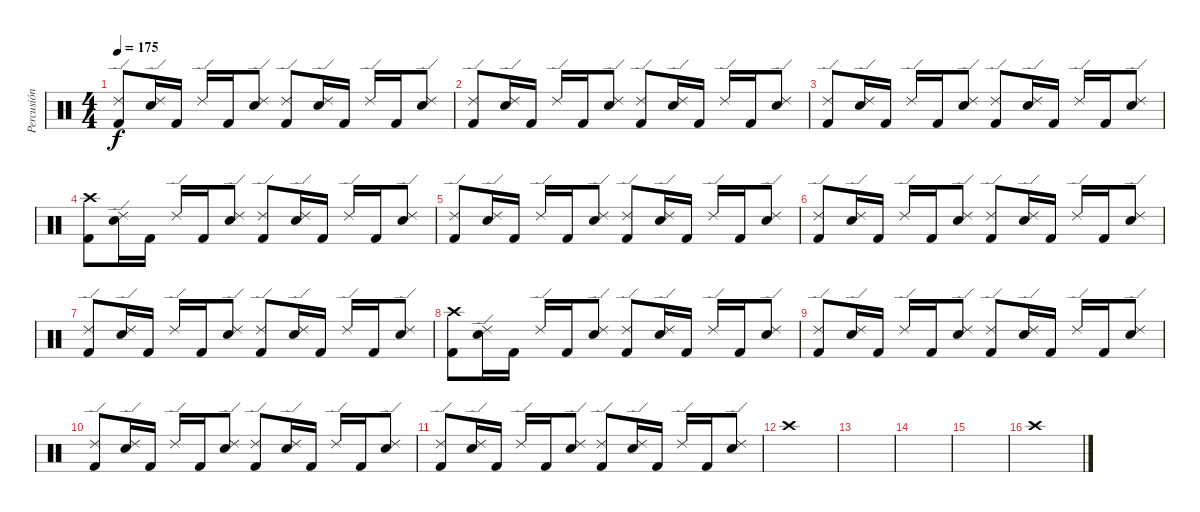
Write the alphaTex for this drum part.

\track ("Percusión" "Percusión") {instrument percussion}
\staff {score}
\articulation defaults
\ts (4 4)
\tempo 175
\clef neutral
\ks c
("Ride (edge) 2" "Kick (hit) 2").8{dy f} ("Ride (edge) 2" "Electric Snare (hit)").16 "Kick (hit) 2".16 "Ride (edge) 2".16 "Kick (hit) 2".16 ("Ride (edge) 2" "Electric Snare (hit)").8 ("Ride (edge) 2" "Kick (hit) 2").8 ("Ride (edge) 2" "Electric Snare (hit)").16 "Kick (hit) 2".16 "Ride (edge) 2".16 "Kick (hit) 2".16 ("Ride (edge) 2" "Electric Snare (hit)").8 |
("Ride (edge) 2" "Kick (hit) 2").8 ("Ride (edge) 2" "Electric Snare (hit)").16 "Kick (hit) 2".16 "Ride (edge) 2".16 "Kick (hit) 2".16 ("Ride (edge) 2" "Electric Snare (hit)").8 ("Ride (edge) 2" "Kick (hit) 2").8 ("Ride (edge) 2" "Electric Snare (hit)").16 "Kick (hit) 2".16 "Ride (edge) 2".16 "Kick (hit) 2".16 ("Ride (edge) 2" "Electric Snare (hit)").8 |
("Ride (edge) 2" "Kick (hit) 2").8 ("Ride (edge) 2" "Electric Snare (hit)").16 "Kick (hit) 2".16 "Ride (edge) 2".16 "Kick (hit) 2".16 ("Ride (edge) 2" "Electric Snare (hit)").8 ("Ride (edge) 2" "Kick (hit) 2").8 ("Ride (edge) 2" "Electric Snare (hit)").16 "Kick (hit) 2".16 "Ride (edge) 2".16 "Kick (hit) 2".16 ("Ride (edge) 2" "Electric Snare (hit)").8 |
("Crash high (hit)" "Kick (hit) 2").8 ("Ride (edge) 2" "Electric Snare (hit)").16 "Kick (hit) 2".16 "Ride (edge) 2".16 "Kick (hit) 2".16 ("Ride (edge) 2" "Electric Snare (hit)").8 ("Ride (edge) 2" "Kick (hit) 2").8 ("Ride (edge) 2" "Electric Snare (hit)").16 "Kick (hit) 2".16 "Ride (edge) 2".16 "Kick (hit) 2".16 ("Ride (edge) 2" "Electric Snare (hit)").8 |
("Ride (edge) 2" "Kick (hit) 2").8 ("Ride (edge) 2" "Electric Snare (hit)").16 "Kick (hit) 2".16 "Ride (edge) 2".16 "Kick (hit) 2".16 ("Ride (edge) 2" "Electric Snare (hit)").8 ("Ride (edge) 2" "Kick (hit) 2").8 ("Ride (edge) 2" "Electric Snare (hit)").16 "Kick (hit) 2".16 "Ride (edge) 2".16 "Kick (hit) 2".16 ("Ride (edge) 2" "Electric Snare (hit)").8 |
("Ride (edge) 2" "Kick (hit) 2").8 ("Ride (edge) 2" "Electric Snare (hit)").16 "Kick (hit) 2".16 "Ride (edge) 2".16 "Kick (hit) 2".16 ("Ride (edge) 2" "Electric Snare (hit)").8 ("Ride (edge) 2" "Kick (hit) 2").8 ("Ride (edge) 2" "Electric Snare (hit)").16 "Kick (hit) 2".16 "Ride (edge) 2".16 "Kick (hit) 2".16 ("Ride (edge) 2" "Electric Snare (hit)").8 |
("Ride (edge) 2" "Kick (hit) 2").8 ("Ride (edge) 2" "Electric Snare (hit)").16 "Kick (hit) 2".16 "Ride (edge) 2".16 "Kick (hit) 2".16 ("Ride (edge) 2" "Electric Snare (hit)").8 ("Ride (edge) 2" "Kick (hit) 2").8 ("Ride (edge) 2" "Electric Snare (hit)").16 "Kick (hit) 2".16 "Ride (edge) 2".16 "Kick (hit) 2".16 ("Ride (edge) 2" "Electric Snare (hit)").8 |
("Crash high (hit)" "Kick (hit) 2").8 ("Ride (edge) 2" "Electric Snare (hit)").16 "Kick (hit) 2".16 "Ride (edge) 2".16 "Kick (hit) 2".16 ("Ride (edge) 2" "Electric Snare (hit)").8 ("Ride (edge) 2" "Kick (hit) 2").8 ("Ride (edge) 2" "Electric Snare (hit)").16 "Kick (hit) 2".16 "Ride (edge) 2".16 "Kick (hit) 2".16 ("Ride (edge) 2" "Electric Snare (hit)").8 |
("Ride (edge) 2" "Kick (hit) 2").8 ("Ride (edge) 2" "Electric Snare (hit)").16 "Kick (hit) 2".16 "Ride (edge) 2".16 "Kick (hit) 2".16 ("Ride (edge) 2" "Electric Snare (hit)").8 ("Ride (edge) 2" "Kick (hit) 2").8 ("Ride (edge) 2" "Electric Snare (hit)").16 "Kick (hit) 2".16 "Ride (edge) 2".16 "Kick (hit) 2".16 ("Ride (edge) 2" "Electric Snare (hit)").8 |
("Ride (edge) 2" "Kick (hit) 2").8 ("Ride (edge) 2" "Electric Snare (hit)").16 "Kick (hit) 2".16 "Ride (edge) 2".16 "Kick (hit) 2".16 ("Ride (edge) 2" "Electric Snare (hit)").8 ("Ride (edge) 2" "Kick (hit) 2").8 ("Ride (edge) 2" "Electric Snare (hit)").16 "Kick (hit) 2".16 "Ride (edge) 2".16 "Kick (hit) 2".16 ("Ride (edge) 2" "Electric Snare (hit)").8 |
("Ride (edge) 2" "Kick (hit) 2").8 ("Ride (edge) 2" "Electric Snare (hit)").16 "Kick (hit) 2".16 "Ride (edge) 2".16 "Kick (hit) 2".16 ("Ride (edge) 2" "Electric Snare (hit)").8 ("Ride (edge) 2" "Kick (hit) 2").8 ("Ride (edge) 2" "Electric Snare (hit)").16 "Kick (hit) 2".16 "Ride (edge) 2".16 "Kick (hit) 2".16 ("Ride (edge) 2" "Electric Snare (hit)").8 |
"Crash high (hit)".1 |
|
|
|
"Crash high (hit)".1
